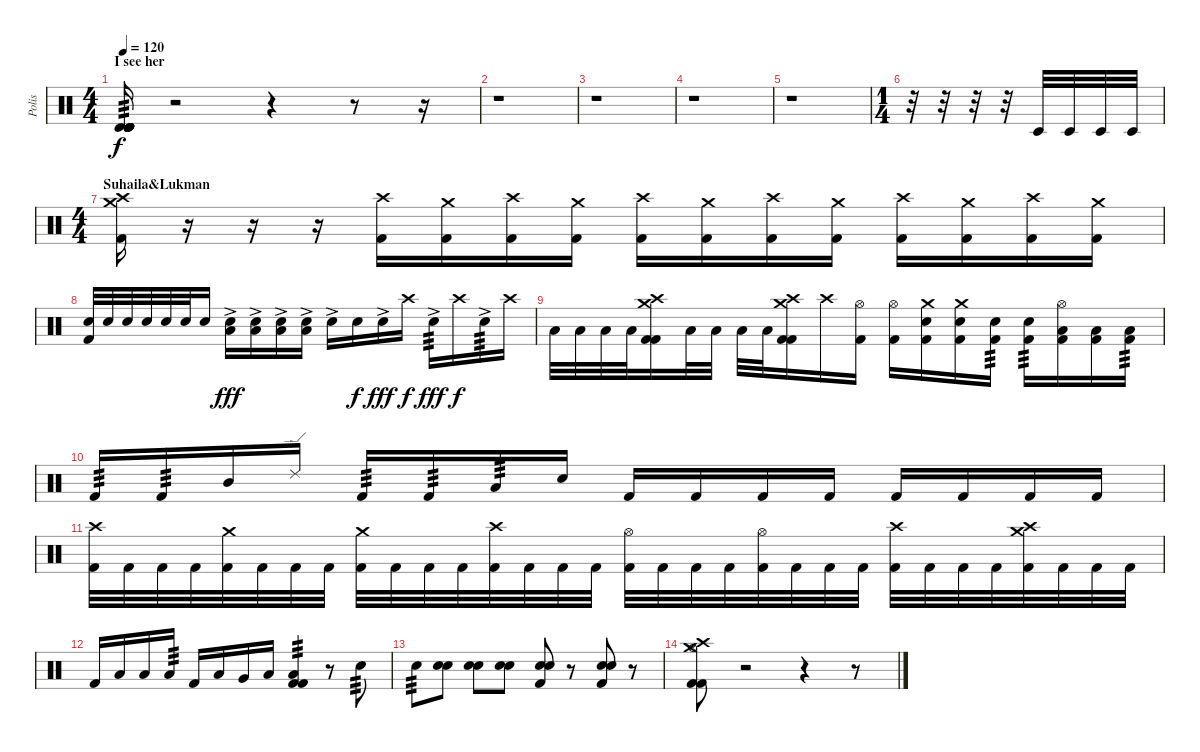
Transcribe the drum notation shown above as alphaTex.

\track ("Polis" "Polis") {instrument percussion}
\staff {score}
\articulation defaults
\ts (4 4)
\section ("" "I see her")
\tempo 120
\clef neutral
\ks c
("Timbale high (hit)" "Timbale high (hit)" "Timbale high (hit)" "Timbale high (hit)" "Timbale high (hit)" "Timbale high (hit)").16{tp 3 dy f} r.2 r.4 r.8 r.16 |
r.1 |
r.1 |
r.1 |
r.1 |
\ts (1 4)
r.32 r.32 r.32 r.32 "Timbale low (hit)".32 "Timbale low (hit)".32 "Timbale low (hit)".32 "Timbale low (hit)".32 |
\ts (4 4)
\section ("" "Suhaila&Lukman")
("Kick (hit) 2" "Crash high (hit)" "Crash medium (hit)").16 r.16 r.16 r.16 ("Kick (hit) 2" "Crash high (hit)").16 ("Kick (hit) 2" "Crash medium (hit)").16 ("Kick (hit) 2" "Crash high (hit)").16 ("Kick (hit) 2" "Crash medium (hit)").16 ("Kick (hit) 2" "Crash high (hit)").16 ("Kick (hit) 2" "Crash medium (hit)").16 ("Kick (hit) 2" "Crash high (hit)").16 ("Kick (hit) 2" "Crash medium (hit)").16 ("Kick (hit) 2" "Crash high (hit)").16 ("Kick (hit) 2" "Crash medium (hit)").16 ("Kick (hit) 2" "Crash high (hit)").16 ("Kick (hit) 2" "Crash medium (hit)").16 |
("Kick (hit) 2" "Electric Snare (hit)").32 "Electric Snare (hit)".32 "Electric Snare (hit)".32 "Electric Snare (hit)".32 "Electric Snare (hit)".32 "Electric Snare (hit)".32 "Electric Snare (hit)".16 ("Low Floor Tom (hit)" "Electric Snare (hit)"{ac}).16{dy fff} ("Low Floor Tom (hit)" "Electric Snare (hit)"{ac}).16 ("Low Floor Tom (hit)" "Electric Snare (hit)"{ac}).16 ("Low Floor Tom (hit)" "Electric Snare (hit)"{ac}).16 "Electric Snare (hit)"{ac}.16 "Electric Snare (hit)".16{dy f} "Electric Snare (hit)"{ac}.16{dy fff} "Crash high (hit)".16{dy f} "Electric Snare (hit)"{ac}.16{tp 3 dy fff} "Crash high (hit)".16{dy f} "Electric Snare (hit)"{ac}.16{tp 3} "Crash high (hit)".16 |
"Low Floor Tom (hit)".32 "Low Floor Tom (hit)".32 "Low Floor Tom (hit)".32 "Low Floor Tom (hit)".32 ("Kick (hit) 2" "Kick (hit) 2" "Crash medium (hit)" "Crash high (hit)").16 "Low Floor Tom (hit)".32 "Low Floor Tom (hit)".32 "Low Floor Tom (hit)".32 "Low Floor Tom (hit)".32 ("Kick (hit) 2" "Kick (hit) 2" "Crash medium (hit)" "Crash high (hit)").16 "Crash high (hit)".16 ("Kick (hit) 2" "Hi-Hat (open)").16 ("Kick (hit) 2" "Hi-Hat (open)").16 ("Kick (hit) 2" "Electric Snare (hit)" "Crash medium (hit)").16 ("Kick (hit) 2" "Electric Snare (hit)" "Crash medium (hit)").16 ("Kick (hit) 2" "Electric Snare (hit)").16{tp 3} ("Kick (hit) 2" "Electric Snare (hit)").16{tp 3} ("Kick (hit) 2" "Low Floor Tom (hit)" "Hi-Hat (open)").16 ("Kick (hit) 2" "Low Floor Tom (hit)").16 ("Kick (hit) 2" "Low Tom (hit)").16{tp 3} |
"Kick (hit) 2".16{tp 3} "Kick (hit) 2".16{tp 3} "Mid Tom (hit)".16 "Ride (edge) 2".16 "Kick (hit) 2".16{tp 3} "Kick (hit) 2".16{tp 3} "Low Floor Tom (hit)".16{tp 3} "Electric Snare (hit)".16 "Kick (hit) 2".16 "Kick (hit) 2".16 "Kick (hit) 2".16 "Kick (hit) 2".16 "Kick (hit) 2".16 "Kick (hit) 2".16 "Kick (hit) 2".16 "Kick (hit) 2".16 |
("Kick (hit) 2" "Crash high (hit)").32 "Kick (hit) 2".32 "Kick (hit) 2".32 "Kick (hit) 2".32 ("Kick (hit) 2" "Crash medium (hit)").32 "Kick (hit) 2".32 "Kick (hit) 2".32 "Kick (hit) 2".32 ("Kick (hit) 2" "Crash medium (hit)").32 "Kick (hit) 2".32 "Kick (hit) 2".32 "Kick (hit) 2".32 ("Kick (hit) 2" "Crash high (hit)").32 "Kick (hit) 2".32 "Kick (hit) 2".32 "Kick (hit) 2".32 ("Kick (hit) 2" "Hi-Hat (open)").32 "Kick (hit) 2".32 "Kick (hit) 2".32 "Kick (hit) 2".32 ("Kick (hit) 2" "Hi-Hat (open)").32 "Kick (hit) 2".32 "Kick (hit) 2".32 "Kick (hit) 2".32 ("Kick (hit) 2" "Crash high (hit)").32 "Kick (hit) 2".32 "Kick (hit) 2".32 "Kick (hit) 2".32 ("Kick (hit) 2" "Crash medium (hit)" "Crash high (hit)").32 "Kick (hit) 2".32 "Kick (hit) 2".32 "Kick (hit) 2".32 |
"Kick (hit) 2".16 "Low Floor Tom (hit)".16 "Low Floor Tom (hit)".16 "Low Floor Tom (hit)".16{tp 3} "Kick (hit) 2".16 "Low Tom (hit)".16 "Very Low Tom (hit)".16 "Low Floor Tom (hit)".16 ("Kick (hit) 2" "Kick (hit) 2" "Low Floor Tom (hit)").4{tp 3} r.8 "Electric Snare (hit)".8{tp 3} |
"Electric Snare (hit)".8{tp 3} ("Electric Snare (hit)" "Electric Snare (hit)").8 ("Electric Snare (hit)" "Electric Snare (hit)").8 ("Snare (hit)" "Electric Snare (hit)").8 ("Kick (hit) 2" "Electric Snare (hit)" "Electric Snare (hit)").8 r.8 ("Kick (hit) 2" "Electric Snare (hit)" "Electric Snare (hit)").8 r.8 |
("Kick (hit) 2" "Kick (hit) 2" "Crash high (hit)" "Crash medium (hit)" "Hi-Hat (open)").8 r.2 r.4 r.8
